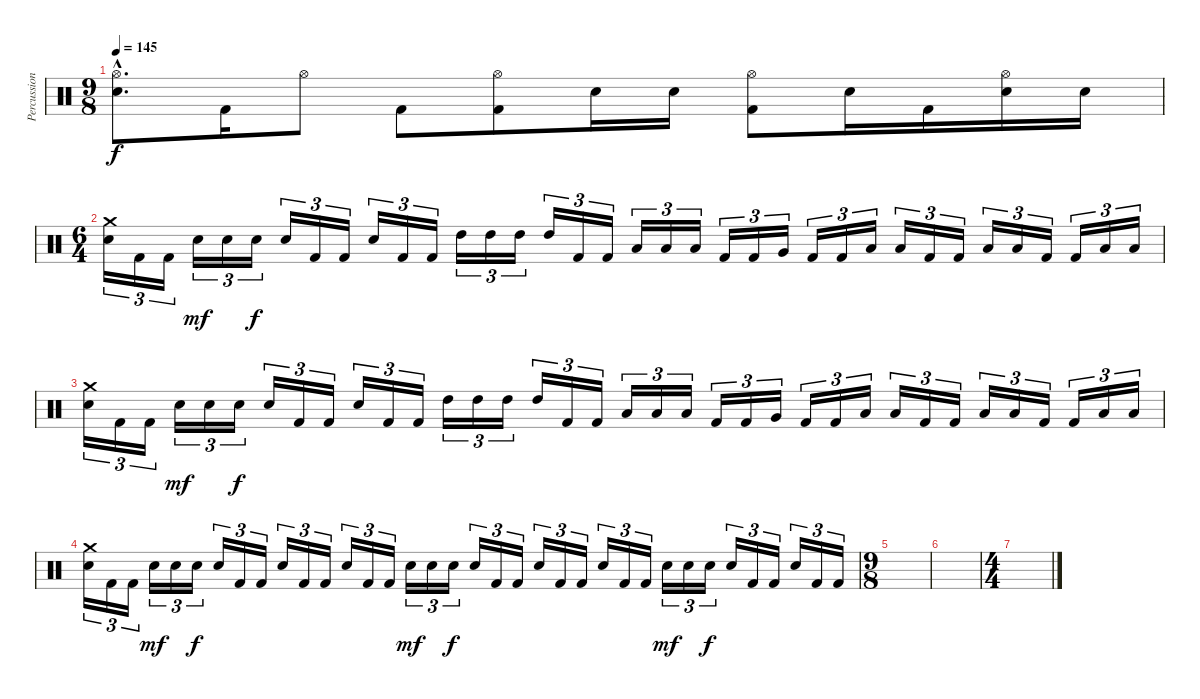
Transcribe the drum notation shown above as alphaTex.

\track ("Percussions" "Percussion") {instrument percussion}
\staff {score}
\articulation defaults
\ts (9 8)
\tempo 145
\clef neutral
\ks c
("Hi-Hat (open)"{hac} "Electric Snare (hit)"{hac}).8{d dy f} "Kick (hit) 2".16 "Hi-Hat (open)".8 "Kick (hit) 2".8 ("Hi-Hat (open)" "Kick (hit) 2").8 "Electric Snare (hit)".16 "Electric Snare (hit)".16 ("Hi-Hat (open)" "Kick (hit) 2").8 "Electric Snare (hit)".16 "Kick (hit) 2".16 ("Hi-Hat (open)" "Electric Snare (hit)").16 "Electric Snare (hit)".16 |
\ts (6 4)
("Crash medium (hit)" "Electric Snare (hit)").16{tu (3 2)} "Kick (hit) 2".16{tu (3 2)} "Kick (hit) 2".16{tu (3 2)} "Electric Snare (hit)".16{tu (3 2) dy mf} "Electric Snare (hit)".16{tu (3 2)} "Electric Snare (hit)".16{tu (3 2) dy f} "Electric Snare (hit)".16{tu (3 2)} "Kick (hit) 2".16{tu (3 2)} "Kick (hit) 2".16{tu (3 2)} "Electric Snare (hit)".16{tu (3 2)} "Kick (hit) 2".16{tu (3 2)} "Kick (hit) 2".16{tu (3 2)} "High Tom (hit)".16{tu (3 2)} "High Tom (hit)".16{tu (3 2)} "High Tom (hit)".16{tu (3 2)} "High Tom (hit)".16{tu (3 2)} "Kick (hit) 2".16{tu (3 2)} "Kick (hit) 2".16{tu (3 2)} "Low Tom (hit)".16{tu (3 2)} "Low Tom (hit)".16{tu (3 2)} "Low Tom (hit)".16{tu (3 2)} "Kick (hit) 2".16{tu (3 2)} "Kick (hit) 2".16{tu (3 2)} "Very Low Tom (hit)".16{tu (3 2)} "Kick (hit) 2".16{tu (3 2)} "Kick (hit) 2".16{tu (3 2)} "Low Floor Tom (hit)".16{tu (3 2)} "Low Floor Tom (hit)".16{tu (3 2)} "Kick (hit) 2".16{tu (3 2)} "Kick (hit) 2".16{tu (3 2)} "Low Floor Tom (hit)".16{tu (3 2)} "Low Floor Tom (hit)".16{tu (3 2)} "Kick (hit) 2".16{tu (3 2)} "Kick (hit) 2".16{tu (3 2)} "Low Floor Tom (hit)".16{tu (3 2)} "Low Floor Tom (hit)".16{tu (3 2)} |
("Crash medium (hit)" "Electric Snare (hit)").16{tu (3 2)} "Kick (hit) 2".16{tu (3 2)} "Kick (hit) 2".16{tu (3 2)} "Electric Snare (hit)".16{tu (3 2) dy mf} "Electric Snare (hit)".16{tu (3 2)} "Electric Snare (hit)".16{tu (3 2) dy f} "Electric Snare (hit)".16{tu (3 2)} "Kick (hit) 2".16{tu (3 2)} "Kick (hit) 2".16{tu (3 2)} "Electric Snare (hit)".16{tu (3 2)} "Kick (hit) 2".16{tu (3 2)} "Kick (hit) 2".16{tu (3 2)} "High Tom (hit)".16{tu (3 2)} "High Tom (hit)".16{tu (3 2)} "High Tom (hit)".16{tu (3 2)} "High Tom (hit)".16{tu (3 2)} "Kick (hit) 2".16{tu (3 2)} "Kick (hit) 2".16{tu (3 2)} "Low Tom (hit)".16{tu (3 2)} "Low Tom (hit)".16{tu (3 2)} "Low Tom (hit)".16{tu (3 2)} "Kick (hit) 2".16{tu (3 2)} "Kick (hit) 2".16{tu (3 2)} "Very Low Tom (hit)".16{tu (3 2)} "Kick (hit) 2".16{tu (3 2)} "Kick (hit) 2".16{tu (3 2)} "Low Floor Tom (hit)".16{tu (3 2)} "Low Floor Tom (hit)".16{tu (3 2)} "Kick (hit) 2".16{tu (3 2)} "Kick (hit) 2".16{tu (3 2)} "Low Floor Tom (hit)".16{tu (3 2)} "Low Floor Tom (hit)".16{tu (3 2)} "Kick (hit) 2".16{tu (3 2)} "Kick (hit) 2".16{tu (3 2)} "Low Floor Tom (hit)".16{tu (3 2)} "Low Floor Tom (hit)".16{tu (3 2)} |
("Crash medium (hit)" "Electric Snare (hit)").16{tu (3 2)} "Kick (hit) 2".16{tu (3 2)} "Kick (hit) 2".16{tu (3 2)} "Electric Snare (hit)".16{tu (3 2) dy mf} "Electric Snare (hit)".16{tu (3 2)} "Electric Snare (hit)".16{tu (3 2) dy f} "Electric Snare (hit)".16{tu (3 2)} "Kick (hit) 2".16{tu (3 2)} "Kick (hit) 2".16{tu (3 2)} "Electric Snare (hit)".16{tu (3 2)} "Kick (hit) 2".16{tu (3 2)} "Kick (hit) 2".16{tu (3 2)} "Electric Snare (hit)".16{tu (3 2)} "Kick (hit) 2".16{tu (3 2)} "Kick (hit) 2".16{tu (3 2)} "Electric Snare (hit)".16{tu (3 2) dy mf} "Electric Snare (hit)".16{tu (3 2)} "Electric Snare (hit)".16{tu (3 2) dy f} "Electric Snare (hit)".16{tu (3 2)} "Kick (hit) 2".16{tu (3 2)} "Kick (hit) 2".16{tu (3 2)} "Electric Snare (hit)".16{tu (3 2)} "Kick (hit) 2".16{tu (3 2)} "Kick (hit) 2".16{tu (3 2)} "Electric Snare (hit)".16{tu (3 2)} "Kick (hit) 2".16{tu (3 2)} "Kick (hit) 2".16{tu (3 2)} "Electric Snare (hit)".16{tu (3 2) dy mf} "Electric Snare (hit)".16{tu (3 2)} "Electric Snare (hit)".16{tu (3 2) dy f} "Electric Snare (hit)".16{tu (3 2)} "Kick (hit) 2".16{tu (3 2)} "Kick (hit) 2".16{tu (3 2)} "Electric Snare (hit)".16{tu (3 2)} "Kick (hit) 2".16{tu (3 2)} "Kick (hit) 2".16{tu (3 2)} |
\ts (9 8)
|
|
\ts (4 4)
